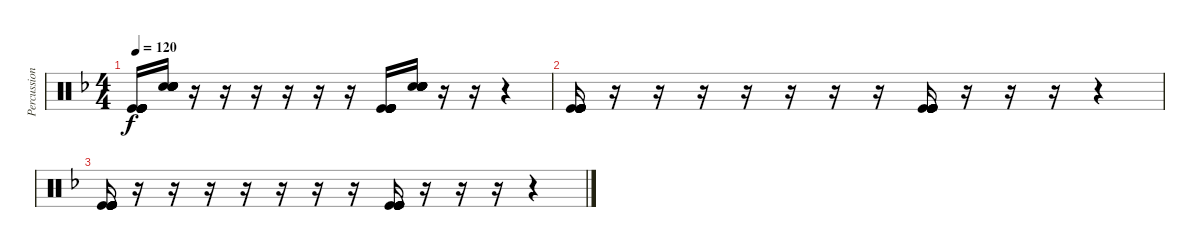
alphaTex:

\track ("Percussion" "Percussion") {instrument percussion}
\staff {score}
\articulation defaults
\ts (4 4)
\tempo 120
\clef neutral
\ks f
("Kick (hit)" "Kick (hit)" "Kick (hit)" "Kick (hit)" "Kick (hit)" "Kick (hit)").16{dy f} ("Electric Snare (hit)" "Electric Snare (hit)" "Electric Snare (hit)" "Electric Snare (hit)" "Electric Snare (hit)" "Electric Snare (hit)").16 r.16 r.16 r.16 r.16 r.16 r.16 ("Kick (hit)" "Kick (hit)" "Kick (hit)" "Kick (hit)" "Kick (hit)" "Kick (hit)").16 ("Electric Snare (hit)" "Electric Snare (hit)" "Electric Snare (hit)" "Electric Snare (hit)" "Electric Snare (hit)" "Electric Snare (hit)").16 r.16 r.16 r.4 |
("Kick (hit)" "Kick (hit)" "Kick (hit)" "Kick (hit)" "Kick (hit)" "Kick (hit)").16 r.16 r.16 r.16 r.16 r.16 r.16 r.16 ("Kick (hit)" "Kick (hit)" "Kick (hit)" "Kick (hit)" "Kick (hit)" "Kick (hit)").16 r.16 r.16 r.16 r.4 |
("Kick (hit)" "Kick (hit)" "Kick (hit)" "Kick (hit)" "Kick (hit)" "Kick (hit)").16 r.16 r.16 r.16 r.16 r.16 r.16 r.16 ("Kick (hit)" "Kick (hit)" "Kick (hit)" "Kick (hit)" "Kick (hit)" "Kick (hit)").16 r.16 r.16 r.16 r.4
